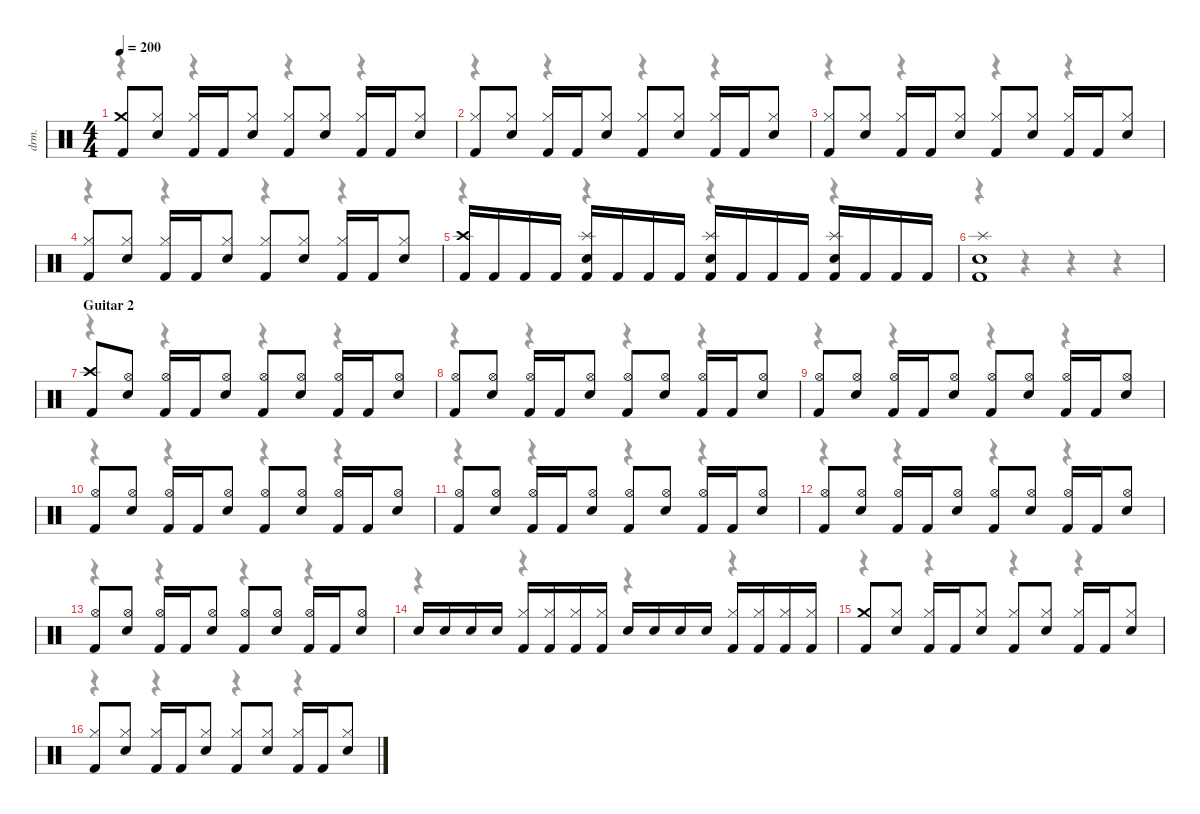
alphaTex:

\hideDynamics
\bracketExtendMode nobrackets
\otherSystemsTrackNameOrientation horizontal
\track ("Drums" "drm.") {instrument percussion}
\staff {score}
\articulation defaults
\voice
\ts (4 4)
\scale
1.07665
\tempo 200
\accidentals auto
\clef neutral
\ottava regular
\simile none
\ks c
("Kick (hit) 2" "Crash medium (hit)").8{dy f} ("Snare (hit) 2" "Hi-Hat (closed)").8 ("Kick (hit) 2" "Hi-Hat (closed)").16 "Kick (hit) 2".16 ("Snare (hit) 2" "Hi-Hat (closed)").8 ("Kick (hit) 2" "Hi-Hat (closed)").8 ("Snare (hit) 2" "Hi-Hat (closed)").8 ("Kick (hit) 2" "Hi-Hat (closed)").16 "Kick (hit) 2".16 ("Snare (hit) 2" "Hi-Hat (closed)").8 |
\scale
0.988084 ("Kick (hit) 2" "Hi-Hat (closed)").8 ("Snare (hit) 2" "Hi-Hat (closed)").8 ("Kick (hit) 2" "Hi-Hat (closed)").16 "Kick (hit) 2".16 ("Snare (hit) 2" "Hi-Hat (closed)").8 ("Kick (hit) 2" "Hi-Hat (closed)").8 ("Snare (hit) 2" "Hi-Hat (closed)").8 ("Kick (hit) 2" "Hi-Hat (closed)").16 "Kick (hit) 2".16 ("Snare (hit) 2" "Hi-Hat (closed)").8 |
\scale
0.988084 ("Kick (hit) 2" "Hi-Hat (closed)").8 ("Snare (hit) 2" "Hi-Hat (closed)").8 ("Kick (hit) 2" "Hi-Hat (closed)").16 "Kick (hit) 2".16 ("Snare (hit) 2" "Hi-Hat (closed)").8 ("Kick (hit) 2" "Hi-Hat (closed)").8 ("Snare (hit) 2" "Hi-Hat (closed)").8 ("Kick (hit) 2" "Hi-Hat (closed)").16 "Kick (hit) 2".16 ("Snare (hit) 2" "Hi-Hat (closed)").8 |
\scale
0.988084 ("Kick (hit) 2" "Hi-Hat (closed)").8 ("Snare (hit) 2" "Hi-Hat (closed)").8 ("Kick (hit) 2" "Hi-Hat (closed)").16 "Kick (hit) 2".16 ("Snare (hit) 2" "Hi-Hat (closed)").8 ("Kick (hit) 2" "Hi-Hat (closed)").8 ("Snare (hit) 2" "Hi-Hat (closed)").8 ("Kick (hit) 2" "Hi-Hat (closed)").16 "Kick (hit) 2".16 ("Snare (hit) 2" "Hi-Hat (closed)").8 |
\scale
0.973373 ("Kick (hit) 2" "Crash high (hit)").16 "Kick (hit) 2".16 "Kick (hit) 2".16 "Kick (hit) 2".16 ("Kick (hit) 2" "Snare (hit) 2" "Splash (hit)").16 "Kick (hit) 2".16 "Kick (hit) 2".16 "Kick (hit) 2".16 ("Kick (hit) 2" "Snare (hit) 2" "Splash (hit)").16 "Kick (hit) 2".16 "Kick (hit) 2".16 "Kick (hit) 2".16 ("Kick (hit) 2" "Snare (hit) 2" "Splash (hit)").16 "Kick (hit) 2".16 "Kick (hit) 2".16 "Kick (hit) 2".16 |
\scale
0.98573 ("Kick (hit) 2" "Snare (hit) 2" "Splash (hit)").1 |
\section ("" "Guitar 2")
\scale
1.08361 ("Kick (hit) 2" "Crash high (hit)").8 ("Snare (hit) 2" "Hi-Hat (open)").8 ("Kick (hit) 2" "Hi-Hat (open)").16 "Kick (hit) 2".16 ("Snare (hit) 2" "Hi-Hat (open)").8 ("Kick (hit) 2" "Hi-Hat (open)").8 ("Snare (hit) 2" "Hi-Hat (open)").8 ("Kick (hit) 2" "Hi-Hat (open)").16 "Kick (hit) 2".16 ("Snare (hit) 2" "Hi-Hat (open)").8 |
\scale
0.980336 ("Kick (hit) 2" "Hi-Hat (open)").8 ("Snare (hit) 2" "Hi-Hat (open)").8 ("Kick (hit) 2" "Hi-Hat (open)").16 "Kick (hit) 2".16 ("Snare (hit) 2" "Hi-Hat (open)").8 ("Kick (hit) 2" "Hi-Hat (open)").8 ("Snare (hit) 2" "Hi-Hat (open)").8 ("Kick (hit) 2" "Hi-Hat (open)").16 "Kick (hit) 2".16 ("Snare (hit) 2" "Hi-Hat (open)").8 |
\scale
0.980336 ("Kick (hit) 2" "Hi-Hat (open)").8 ("Snare (hit) 2" "Hi-Hat (open)").8 ("Kick (hit) 2" "Hi-Hat (open)").16 "Kick (hit) 2".16 ("Snare (hit) 2" "Hi-Hat (open)").8 ("Kick (hit) 2" "Hi-Hat (open)").8 ("Snare (hit) 2" "Hi-Hat (open)").8 ("Kick (hit) 2" "Hi-Hat (open)").16 "Kick (hit) 2".16 ("Snare (hit) 2" "Hi-Hat (open)").8 |
\scale
0.980336 ("Kick (hit) 2" "Hi-Hat (open)").8 ("Snare (hit) 2" "Hi-Hat (open)").8 ("Kick (hit) 2" "Hi-Hat (open)").16 "Kick (hit) 2".16 ("Snare (hit) 2" "Hi-Hat (open)").8 ("Kick (hit) 2" "Hi-Hat (open)").8 ("Snare (hit) 2" "Hi-Hat (open)").8 ("Kick (hit) 2" "Hi-Hat (open)").16 "Kick (hit) 2".16 ("Snare (hit) 2" "Hi-Hat (open)").8 |
\scale
0.995047 ("Kick (hit) 2" "Hi-Hat (open)").8 ("Snare (hit) 2" "Hi-Hat (open)").8 ("Kick (hit) 2" "Hi-Hat (open)").16 "Kick (hit) 2".16 ("Snare (hit) 2" "Hi-Hat (open)").8 ("Kick (hit) 2" "Hi-Hat (open)").8 ("Snare (hit) 2" "Hi-Hat (open)").8 ("Kick (hit) 2" "Hi-Hat (open)").16 "Kick (hit) 2".16 ("Snare (hit) 2" "Hi-Hat (open)").8 |
\scale
0.980336 ("Kick (hit) 2" "Hi-Hat (open)").8 ("Snare (hit) 2" "Hi-Hat (open)").8 ("Kick (hit) 2" "Hi-Hat (open)").16 "Kick (hit) 2".16 ("Snare (hit) 2" "Hi-Hat (open)").8 ("Kick (hit) 2" "Hi-Hat (open)").8 ("Snare (hit) 2" "Hi-Hat (open)").8 ("Kick (hit) 2" "Hi-Hat (open)").16 "Kick (hit) 2".16 ("Snare (hit) 2" "Hi-Hat (open)").8 |
\scale
1.08116 ("Kick (hit) 2" "Hi-Hat (open)").8 ("Snare (hit) 2" "Hi-Hat (open)").8 ("Kick (hit) 2" "Hi-Hat (open)").16 "Kick (hit) 2".16 ("Snare (hit) 2" "Hi-Hat (open)").8 ("Kick (hit) 2" "Hi-Hat (open)").8 ("Snare (hit) 2" "Hi-Hat (open)").8 ("Kick (hit) 2" "Hi-Hat (open)").16 "Kick (hit) 2".16 ("Snare (hit) 2" "Hi-Hat (open)").8 |
\scale
0.977884 "Snare (hit) 2".16 "Snare (hit) 2".16 "Snare (hit) 2".16 "Snare (hit) 2".16 ("Kick (hit) 2" "Hi-Hat (closed)").16 ("Kick (hit) 2" "Hi-Hat (closed)").16 ("Kick (hit) 2" "Hi-Hat (closed)").16 ("Kick (hit) 2" "Hi-Hat (closed)").16 "Snare (hit) 2".16 "Snare (hit) 2".16 "Snare (hit) 2".16 "Snare (hit) 2".16 ("Kick (hit) 2" "Hi-Hat (closed)").16 ("Kick (hit) 2" "Hi-Hat (closed)").16 ("Kick (hit) 2" "Hi-Hat (closed)").16 ("Kick (hit) 2" "Hi-Hat (closed)").16 |
\scale
0.992595 ("Kick (hit) 2" "Crash medium (hit)").8 ("Snare (hit) 2" "Hi-Hat (closed)").8 ("Kick (hit) 2" "Hi-Hat (closed)").16 "Kick (hit) 2".16 ("Snare (hit) 2" "Hi-Hat (closed)").8 ("Kick (hit) 2" "Hi-Hat (closed)").8 ("Snare (hit) 2" "Hi-Hat (closed)").8 ("Kick (hit) 2" "Hi-Hat (closed)").16 "Kick (hit) 2".16 ("Snare (hit) 2" "Hi-Hat (closed)").8 |
\scale
0.992595 ("Kick (hit) 2" "Hi-Hat (closed)").8 ("Snare (hit) 2" "Hi-Hat (closed)").8 ("Kick (hit) 2" "Hi-Hat (closed)").16 "Kick (hit) 2".16 ("Snare (hit) 2" "Hi-Hat (closed)").8 ("Kick (hit) 2" "Hi-Hat (closed)").8 ("Snare (hit) 2" "Hi-Hat (closed)").8 ("Kick (hit) 2" "Hi-Hat (closed)").16 "Kick (hit) 2".16 ("Snare (hit) 2" "Hi-Hat (closed)").8
\voice
\clef neutral
\ottava regular
\simile none
\ks c
r.4{dy mf} r.4 r.4 r.4 |
r.4 r.4 r.4 r.4 |
r.4 r.4 r.4 r.4 |
r.4 r.4 r.4 r.4 |
r.4 r.4 r.4 r.4 |
r.4 r.4 r.4 r.4 |
r.4 r.4 r.4 r.4 |
r.4 r.4 r.4 r.4 |
r.4 r.4 r.4 r.4 |
r.4 r.4 r.4 r.4 |
r.4 r.4 r.4 r.4 |
r.4 r.4 r.4 r.4 |
r.4 r.4 r.4 r.4 |
r.4 r.4 r.4 r.4 |
r.4 r.4 r.4 r.4 |
r.4 r.4 r.4 r.4
